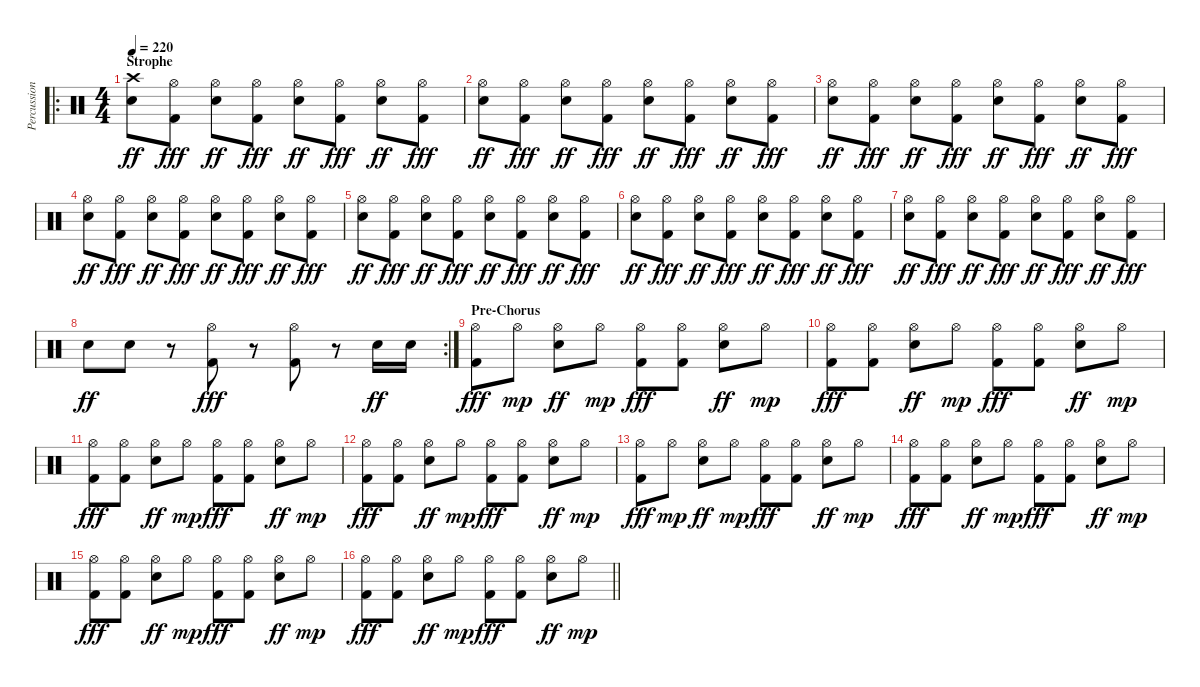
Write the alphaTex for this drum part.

\track ("Percussion" "Percussion") {instrument percussion}
\staff {score}
\articulation defaults
\ro
\ts (4 4)
\section ("" "Strophe")
\tempo 220
\clef neutral
\ks c
("Crash high (hit)" "Electric Snare (hit)").8{dy ff} ("Hi-Hat (open)" "Kick (hit) 2").8{dy fff} ("Hi-Hat (open)" "Electric Snare (hit)").8{dy ff} ("Hi-Hat (open)" "Kick (hit) 2").8{dy fff} ("Hi-Hat (open)" "Electric Snare (hit)").8{dy ff} ("Hi-Hat (open)" "Kick (hit) 2").8{dy fff} ("Hi-Hat (open)" "Electric Snare (hit)").8{dy ff} ("Hi-Hat (open)" "Kick (hit) 2").8{dy fff} |
("Hi-Hat (open)" "Electric Snare (hit)").8{dy ff} ("Hi-Hat (open)" "Kick (hit) 2").8{dy fff} ("Hi-Hat (open)" "Electric Snare (hit)").8{dy ff} ("Hi-Hat (open)" "Kick (hit) 2").8{dy fff} ("Hi-Hat (open)" "Electric Snare (hit)").8{dy ff} ("Hi-Hat (open)" "Kick (hit) 2").8{dy fff} ("Hi-Hat (open)" "Electric Snare (hit)").8{dy ff} ("Hi-Hat (open)" "Kick (hit) 2").8{dy fff} |
("Hi-Hat (open)" "Electric Snare (hit)").8{dy ff} ("Hi-Hat (open)" "Kick (hit) 2").8{dy fff} ("Hi-Hat (open)" "Electric Snare (hit)").8{dy ff} ("Hi-Hat (open)" "Kick (hit) 2").8{dy fff} ("Hi-Hat (open)" "Electric Snare (hit)").8{dy ff} ("Hi-Hat (open)" "Kick (hit) 2").8{dy fff} ("Hi-Hat (open)" "Electric Snare (hit)").8{dy ff} ("Hi-Hat (open)" "Kick (hit) 2").8{dy fff} |
("Hi-Hat (open)" "Electric Snare (hit)").8{dy ff} ("Hi-Hat (open)" "Kick (hit) 2").8{dy fff} ("Hi-Hat (open)" "Electric Snare (hit)").8{dy ff} ("Hi-Hat (open)" "Kick (hit) 2").8{dy fff} ("Hi-Hat (open)" "Electric Snare (hit)").8{dy ff} ("Hi-Hat (open)" "Kick (hit) 2").8{dy fff} ("Hi-Hat (open)" "Electric Snare (hit)").8{dy ff} ("Hi-Hat (open)" "Kick (hit) 2").8{dy fff} |
("Hi-Hat (open)" "Electric Snare (hit)").8{dy ff} ("Hi-Hat (open)" "Kick (hit) 2").8{dy fff} ("Hi-Hat (open)" "Electric Snare (hit)").8{dy ff} ("Hi-Hat (open)" "Kick (hit) 2").8{dy fff} ("Hi-Hat (open)" "Electric Snare (hit)").8{dy ff} ("Hi-Hat (open)" "Kick (hit) 2").8{dy fff} ("Hi-Hat (open)" "Electric Snare (hit)").8{dy ff} ("Hi-Hat (open)" "Kick (hit) 2").8{dy fff} |
("Hi-Hat (open)" "Electric Snare (hit)").8{dy ff} ("Hi-Hat (open)" "Kick (hit) 2").8{dy fff} ("Hi-Hat (open)" "Electric Snare (hit)").8{dy ff} ("Hi-Hat (open)" "Kick (hit) 2").8{dy fff} ("Hi-Hat (open)" "Electric Snare (hit)").8{dy ff} ("Hi-Hat (open)" "Kick (hit) 2").8{dy fff} ("Hi-Hat (open)" "Electric Snare (hit)").8{dy ff} ("Hi-Hat (open)" "Kick (hit) 2").8{dy fff} |
("Hi-Hat (open)" "Electric Snare (hit)").8{dy ff} ("Hi-Hat (open)" "Kick (hit) 2").8{dy fff} ("Hi-Hat (open)" "Electric Snare (hit)").8{dy ff} ("Hi-Hat (open)" "Kick (hit) 2").8{dy fff} ("Hi-Hat (open)" "Electric Snare (hit)").8{dy ff} ("Hi-Hat (open)" "Kick (hit) 2").8{dy fff} ("Hi-Hat (open)" "Electric Snare (hit)").8{dy ff} ("Hi-Hat (open)" "Kick (hit) 2").8{dy fff} |
\rc 2 "Electric Snare (hit)".8{dy ff} "Electric Snare (hit)".8
r.8 ("Hi-Hat (open)" "Kick (hit) 2").8{dy fff} r.8 ("Hi-Hat (open)" "Kick (hit) 2").8 r.8 "Electric Snare (hit)".16{dy ff} "Electric Snare (hit)".16 |
\section ("" "Pre-Chorus")
("Hi-Hat (open)" "Kick (hit) 2").8{dy fff} "Hi-Hat (open)".8{dy mp} ("Hi-Hat (open)" "Electric Snare (hit)").8{dy ff} "Hi-Hat (open)".8{dy mp} ("Hi-Hat (open)" "Kick (hit) 2").8{dy fff} ("Hi-Hat (open)" "Kick (hit) 2").8 ("Hi-Hat (open)" "Electric Snare (hit)").8{dy ff} "Hi-Hat (open)".8{dy mp} |
("Hi-Hat (open)" "Kick (hit) 2").8{dy fff} ("Hi-Hat (open)" "Kick (hit) 2").8 ("Hi-Hat (open)" "Electric Snare (hit)").8{dy ff} "Hi-Hat (open)".8{dy mp} ("Hi-Hat (open)" "Kick (hit) 2").8{dy fff} ("Hi-Hat (open)" "Kick (hit) 2").8 ("Hi-Hat (open)" "Electric Snare (hit)").8{dy ff} "Hi-Hat (open)".8{dy mp} |
("Hi-Hat (open)" "Kick (hit) 2").8{dy fff} ("Hi-Hat (open)" "Kick (hit) 2").8 ("Hi-Hat (open)" "Electric Snare (hit)").8{dy ff} "Hi-Hat (open)".8{dy mp} ("Hi-Hat (open)" "Kick (hit) 2").8{dy fff} ("Hi-Hat (open)" "Kick (hit) 2").8 ("Hi-Hat (open)" "Electric Snare (hit)").8{dy ff} "Hi-Hat (open)".8{dy mp} |
("Hi-Hat (open)" "Kick (hit) 2").8{dy fff} ("Hi-Hat (open)" "Kick (hit) 2").8 ("Hi-Hat (open)" "Electric Snare (hit)").8{dy ff} "Hi-Hat (open)".8{dy mp} ("Hi-Hat (open)" "Kick (hit) 2").8{dy fff} ("Hi-Hat (open)" "Kick (hit) 2").8 ("Hi-Hat (open)" "Electric Snare (hit)").8{dy ff} "Hi-Hat (open)".8{dy mp} |
("Hi-Hat (open)" "Kick (hit) 2").8{dy fff} "Hi-Hat (open)".8{dy mp} ("Hi-Hat (open)" "Electric Snare (hit)").8{dy ff} "Hi-Hat (open)".8{dy mp} ("Hi-Hat (open)" "Kick (hit) 2").8{dy fff} ("Hi-Hat (open)" "Kick (hit) 2").8 ("Hi-Hat (open)" "Electric Snare (hit)").8{dy ff} "Hi-Hat (open)".8{dy mp} |
("Hi-Hat (open)" "Kick (hit) 2").8{dy fff} ("Hi-Hat (open)" "Kick (hit) 2").8 ("Hi-Hat (open)" "Electric Snare (hit)").8{dy ff} "Hi-Hat (open)".8{dy mp} ("Hi-Hat (open)" "Kick (hit) 2").8{dy fff} ("Hi-Hat (open)" "Kick (hit) 2").8 ("Hi-Hat (open)" "Electric Snare (hit)").8{dy ff} "Hi-Hat (open)".8{dy mp} |
("Hi-Hat (open)" "Kick (hit) 2").8{dy fff} ("Hi-Hat (open)" "Kick (hit) 2").8 ("Hi-Hat (open)" "Electric Snare (hit)").8{dy ff} "Hi-Hat (open)".8{dy mp} ("Hi-Hat (open)" "Kick (hit) 2").8{dy fff} ("Hi-Hat (open)" "Kick (hit) 2").8 ("Hi-Hat (open)" "Electric Snare (hit)").8{dy ff} "Hi-Hat (open)".8{dy mp} |
\barLineRight lightlight
("Hi-Hat (open)" "Kick (hit) 2").8{dy fff} ("Hi-Hat (open)" "Kick (hit) 2").8 ("Hi-Hat (open)" "Electric Snare (hit)").8{dy ff} "Hi-Hat (open)".8{dy mp} ("Hi-Hat (open)" "Kick (hit) 2").8{dy fff} ("Hi-Hat (open)" "Kick (hit) 2").8 ("Hi-Hat (open)" "Electric Snare (hit)").8{dy ff} "Hi-Hat (open)".8{dy mp}
